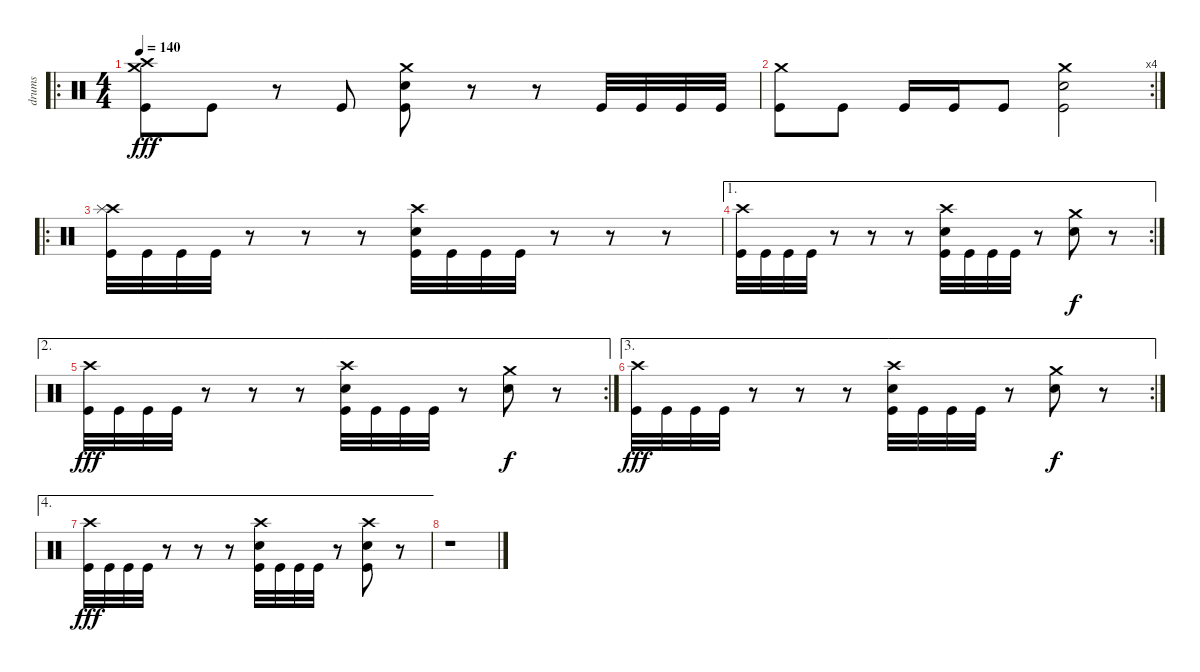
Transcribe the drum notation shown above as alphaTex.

\track ("drums" "drums") {instrument percussion}
\staff
\articulation defaults
\ro
\ts (4 4)
\tempo 140
\clef neutral
\ks c
("Crash high (hit)" "Crash medium (hit)" "Kick (hit)").8{dy fff} "Kick (hit)".8 r.8 "Kick (hit)".8 ("Crash medium (hit)" "Snare (hit) 2" "Kick (hit)").8 r.8 r.8 "Kick (hit)".32 "Kick (hit)".32 "Kick (hit)".32 "Kick (hit)".32 |
\rc 4
("Crash medium (hit)" "Kick (hit)").8 "Kick (hit)".8 "Kick (hit)".16 "Kick (hit)".16 "Kick (hit)".8 ("Crash medium (hit)" "Snare (hit) 2" "Kick (hit)").2 |
\ro
("Crash high (hit)" "Splash (hit)" "Kick (hit)").32 "Kick (hit)".32 "Kick (hit)".32 "Kick (hit)".32 r.8 r.8 r.8 ("Crash high (hit)" "Snare (hit) 2" "Kick (hit)").32 "Kick (hit)".32 "Kick (hit)".32 "Kick (hit)".32 r.8 r.8 r.8 |
\ae 1
\rc 2
("Crash high (hit)" "Kick (hit)").32 "Kick (hit)".32 "Kick (hit)".32 "Kick (hit)".32 r.8 r.8 r.8 ("Crash high (hit)" "Snare (hit) 2" "Kick (hit)").32 "Kick (hit)".32 "Kick (hit)".32 "Kick (hit)".32 r.8 ("Crash medium (hit)" "Snare (hit) 2").8{dy f} r.8 |
\ae 2
\rc 2
("Crash high (hit)" "Kick (hit)").32{dy fff} "Kick (hit)".32 "Kick (hit)".32 "Kick (hit)".32 r.8 r.8 r.8 ("Crash high (hit)" "Snare (hit) 2" "Kick (hit)").32 "Kick (hit)".32 "Kick (hit)".32 "Kick (hit)".32 r.8 ("Crash medium (hit)" "Snare (hit) 2").8{dy f} r.8 |
\ae 3
\rc 2
("Crash high (hit)" "Kick (hit)").32{dy fff} "Kick (hit)".32 "Kick (hit)".32 "Kick (hit)".32 r.8 r.8 r.8 ("Crash high (hit)" "Snare (hit) 2" "Kick (hit)").32 "Kick (hit)".32 "Kick (hit)".32 "Kick (hit)".32 r.8 ("Crash medium (hit)" "Snare (hit) 2").8{dy f} r.8 |
\ae 4
("Crash high (hit)" "Kick (hit)").32{dy fff} "Kick (hit)".32 "Kick (hit)".32 "Kick (hit)".32 r.8 r.8 r.8 ("Crash high (hit)" "Snare (hit) 2" "Kick (hit)").32 "Kick (hit)".32 "Kick (hit)".32 "Kick (hit)".32 r.8 ("Crash high (hit)" "Snare (hit) 2" "Kick (hit)").8 r.8 |
r.1
